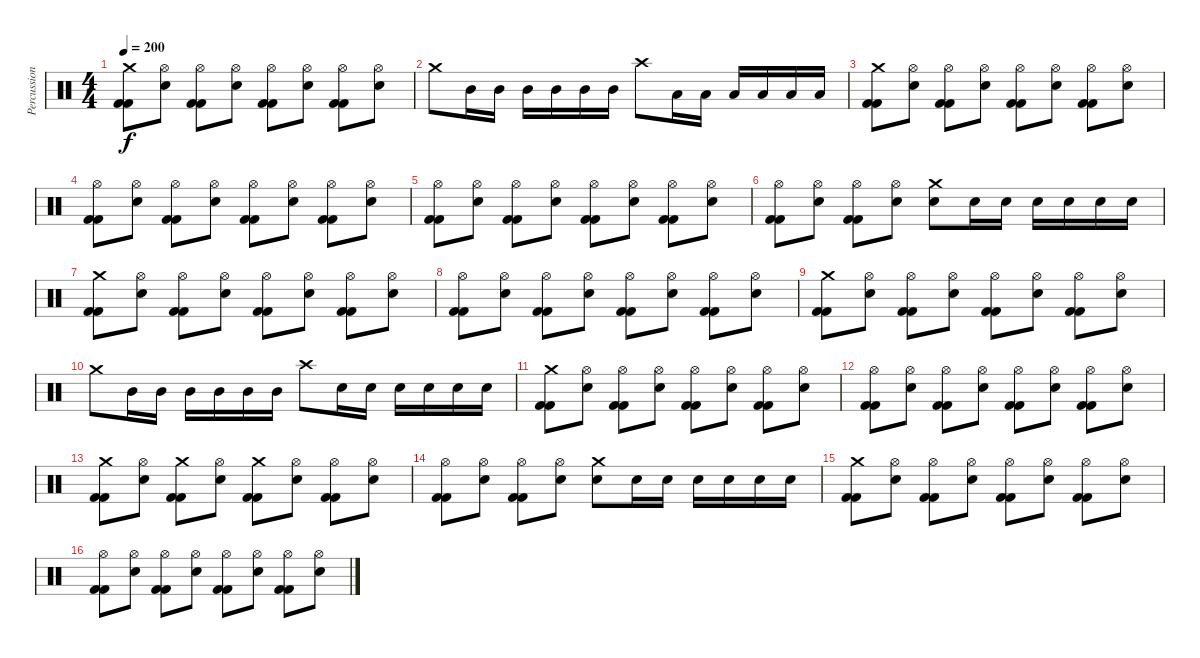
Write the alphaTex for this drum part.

\track ("Percussion" "Percussion") {instrument percussion}
\staff {score}
\articulation defaults
\ts (4 4)
\tempo 200
\clef neutral
\ks c
("Crash medium (hit)" "Kick (hit) 2" "Kick (hit) 2").8{dy f} ("Electric Snare (hit)" "Hi-Hat (open)").8 ("Hi-Hat (open)" "Kick (hit) 2" "Kick (hit) 2").8 ("Electric Snare (hit)" "Hi-Hat (open)").8 ("Hi-Hat (open)" "Kick (hit) 2" "Kick (hit) 2").8 ("Electric Snare (hit)" "Hi-Hat (open)").8 ("Hi-Hat (open)" "Kick (hit) 2" "Kick (hit) 2").8 ("Electric Snare (hit)" "Hi-Hat (open)").8 |
"Crash medium (hit)".8 "Mid Tom (hit)".16 "Mid Tom (hit)".16 "Mid Tom (hit)".16 "Mid Tom (hit)".16 "Mid Tom (hit)".16 "Mid Tom (hit)".16 "Crash high (hit)".8 "Low Tom (hit)".16 "Low Tom (hit)".16 "Low Tom (hit)".16 "Low Tom (hit)".16 "Low Tom (hit)".16 "Low Tom (hit)".16 |
("Crash medium (hit)" "Kick (hit) 2" "Kick (hit) 2").8 ("Electric Snare (hit)" "Hi-Hat (open)").8 ("Hi-Hat (open)" "Kick (hit) 2" "Kick (hit) 2").8 ("Electric Snare (hit)" "Hi-Hat (open)").8 ("Hi-Hat (open)" "Kick (hit) 2" "Kick (hit) 2").8 ("Electric Snare (hit)" "Hi-Hat (open)").8 ("Hi-Hat (open)" "Kick (hit) 2" "Kick (hit) 2").8 ("Electric Snare (hit)" "Hi-Hat (open)").8 |
("Hi-Hat (open)" "Kick (hit) 2" "Kick (hit) 2").8 ("Electric Snare (hit)" "Hi-Hat (open)").8 ("Hi-Hat (open)" "Kick (hit) 2" "Kick (hit) 2").8 ("Electric Snare (hit)" "Hi-Hat (open)").8 ("Hi-Hat (open)" "Kick (hit) 2" "Kick (hit) 2").8 ("Electric Snare (hit)" "Hi-Hat (open)").8 ("Hi-Hat (open)" "Kick (hit) 2" "Kick (hit) 2").8 ("Electric Snare (hit)" "Hi-Hat (open)").8 |
("Hi-Hat (open)" "Kick (hit) 2" "Kick (hit) 2").8 ("Electric Snare (hit)" "Hi-Hat (open)").8 ("Hi-Hat (open)" "Kick (hit) 2" "Kick (hit) 2").8 ("Electric Snare (hit)" "Hi-Hat (open)").8 ("Hi-Hat (open)" "Kick (hit) 2" "Kick (hit) 2").8 ("Electric Snare (hit)" "Hi-Hat (open)").8 ("Hi-Hat (open)" "Kick (hit) 2" "Kick (hit) 2").8 ("Electric Snare (hit)" "Hi-Hat (open)").8 |
("Hi-Hat (open)" "Kick (hit) 2" "Kick (hit) 2").8 ("Electric Snare (hit)" "Hi-Hat (open)").8 ("Hi-Hat (open)" "Kick (hit) 2" "Kick (hit) 2").8 ("Electric Snare (hit)" "Hi-Hat (open)").8 ("Crash medium (hit)" "Electric Snare (hit)").8 "Electric Snare (hit)".16 "Electric Snare (hit)".16 "Electric Snare (hit)".16 "Electric Snare (hit)".16 "Electric Snare (hit)".16 "Electric Snare (hit)".16 |
("Crash medium (hit)" "Kick (hit) 2" "Kick (hit) 2").8 ("Electric Snare (hit)" "Hi-Hat (open)").8 ("Hi-Hat (open)" "Kick (hit) 2" "Kick (hit) 2").8 ("Electric Snare (hit)" "Hi-Hat (open)").8 ("Hi-Hat (open)" "Kick (hit) 2" "Kick (hit) 2").8 ("Electric Snare (hit)" "Hi-Hat (open)").8 ("Hi-Hat (open)" "Kick (hit) 2" "Kick (hit) 2").8 ("Electric Snare (hit)" "Hi-Hat (open)").8 |
("Hi-Hat (open)" "Kick (hit) 2" "Kick (hit) 2").8 ("Hi-Hat (open)" "Electric Snare (hit)").8 ("Hi-Hat (open)" "Kick (hit) 2" "Kick (hit) 2").8 ("Hi-Hat (open)" "Electric Snare (hit)").8 ("Hi-Hat (open)" "Kick (hit) 2" "Kick (hit) 2").8 ("Hi-Hat (open)" "Electric Snare (hit)").8 ("Hi-Hat (open)" "Kick (hit) 2" "Kick (hit) 2").8 ("Hi-Hat (open)" "Electric Snare (hit)").8 |
("Crash medium (hit)" "Kick (hit) 2" "Kick (hit) 2").8 ("Electric Snare (hit)" "Hi-Hat (open)").8 ("Hi-Hat (open)" "Kick (hit) 2" "Kick (hit) 2").8 ("Electric Snare (hit)" "Hi-Hat (open)").8 ("Hi-Hat (open)" "Kick (hit) 2" "Kick (hit) 2").8 ("Electric Snare (hit)" "Hi-Hat (open)").8 ("Hi-Hat (open)" "Kick (hit) 2" "Kick (hit) 2").8 ("Electric Snare (hit)" "Hi-Hat (open)").8 |
"Crash medium (hit)".8 "Mid Tom (hit)".16 "Mid Tom (hit)".16 "Mid Tom (hit)".16 "Mid Tom (hit)".16 "Mid Tom (hit)".16 "Mid Tom (hit)".16 "Crash high (hit)".8 "Electric Snare (hit)".16 "Electric Snare (hit)".16 "Electric Snare (hit)".16 "Electric Snare (hit)".16 "Electric Snare (hit)".16 "Electric Snare (hit)".16 |
("Crash medium (hit)" "Kick (hit) 2" "Kick (hit) 2").8 ("Electric Snare (hit)" "Hi-Hat (open)").8 ("Hi-Hat (open)" "Kick (hit) 2" "Kick (hit) 2").8 ("Electric Snare (hit)" "Hi-Hat (open)").8 ("Hi-Hat (open)" "Kick (hit) 2" "Kick (hit) 2").8 ("Electric Snare (hit)" "Hi-Hat (open)").8 ("Hi-Hat (open)" "Kick (hit) 2" "Kick (hit) 2").8 ("Electric Snare (hit)" "Hi-Hat (open)").8 |
("Hi-Hat (open)" "Kick (hit) 2" "Kick (hit) 2").8 ("Electric Snare (hit)" "Hi-Hat (open)").8 ("Hi-Hat (open)" "Kick (hit) 2" "Kick (hit) 2").8 ("Electric Snare (hit)" "Hi-Hat (open)").8 ("Hi-Hat (open)" "Kick (hit) 2" "Kick (hit) 2").8 ("Electric Snare (hit)" "Hi-Hat (open)").8 ("Hi-Hat (open)" "Kick (hit) 2" "Kick (hit) 2").8 ("Electric Snare (hit)" "Hi-Hat (open)").8 |
("Crash medium (hit)" "Kick (hit) 2" "Kick (hit) 2").8 ("Electric Snare (hit)" "Hi-Hat (open)").8 ("Crash medium (hit)" "Kick (hit) 2" "Kick (hit) 2").8 ("Electric Snare (hit)" "Hi-Hat (open)").8 ("Crash medium (hit)" "Kick (hit) 2" "Kick (hit) 2").8 ("Electric Snare (hit)" "Hi-Hat (open)").8 ("Hi-Hat (open)" "Kick (hit) 2" "Kick (hit) 2").8 ("Electric Snare (hit)" "Hi-Hat (open)").8 |
("Hi-Hat (open)" "Kick (hit) 2" "Kick (hit) 2").8 ("Electric Snare (hit)" "Hi-Hat (open)").8 ("Hi-Hat (open)" "Kick (hit) 2" "Kick (hit) 2").8 ("Electric Snare (hit)" "Hi-Hat (open)").8 ("Crash medium (hit)" "Electric Snare (hit)").8 "Electric Snare (hit)".16 "Electric Snare (hit)".16 "Electric Snare (hit)".16 "Electric Snare (hit)".16 "Electric Snare (hit)".16 "Electric Snare (hit)".16 |
("Crash medium (hit)" "Kick (hit) 2" "Kick (hit) 2").8 ("Electric Snare (hit)" "Hi-Hat (open)").8 ("Hi-Hat (open)" "Kick (hit) 2" "Kick (hit) 2").8 ("Electric Snare (hit)" "Hi-Hat (open)").8 ("Hi-Hat (open)" "Kick (hit) 2" "Kick (hit) 2").8 ("Electric Snare (hit)" "Hi-Hat (open)").8 ("Hi-Hat (open)" "Kick (hit) 2" "Kick (hit) 2").8 ("Electric Snare (hit)" "Hi-Hat (open)").8 |
("Hi-Hat (open)" "Kick (hit) 2" "Kick (hit) 2").8 ("Hi-Hat (open)" "Electric Snare (hit)").8 ("Hi-Hat (open)" "Kick (hit) 2" "Kick (hit) 2").8 ("Hi-Hat (open)" "Electric Snare (hit)").8 ("Hi-Hat (open)" "Kick (hit) 2" "Kick (hit) 2").8 ("Hi-Hat (open)" "Electric Snare (hit)").8 ("Hi-Hat (open)" "Kick (hit) 2" "Kick (hit) 2").8 ("Hi-Hat (open)" "Electric Snare (hit)").8
